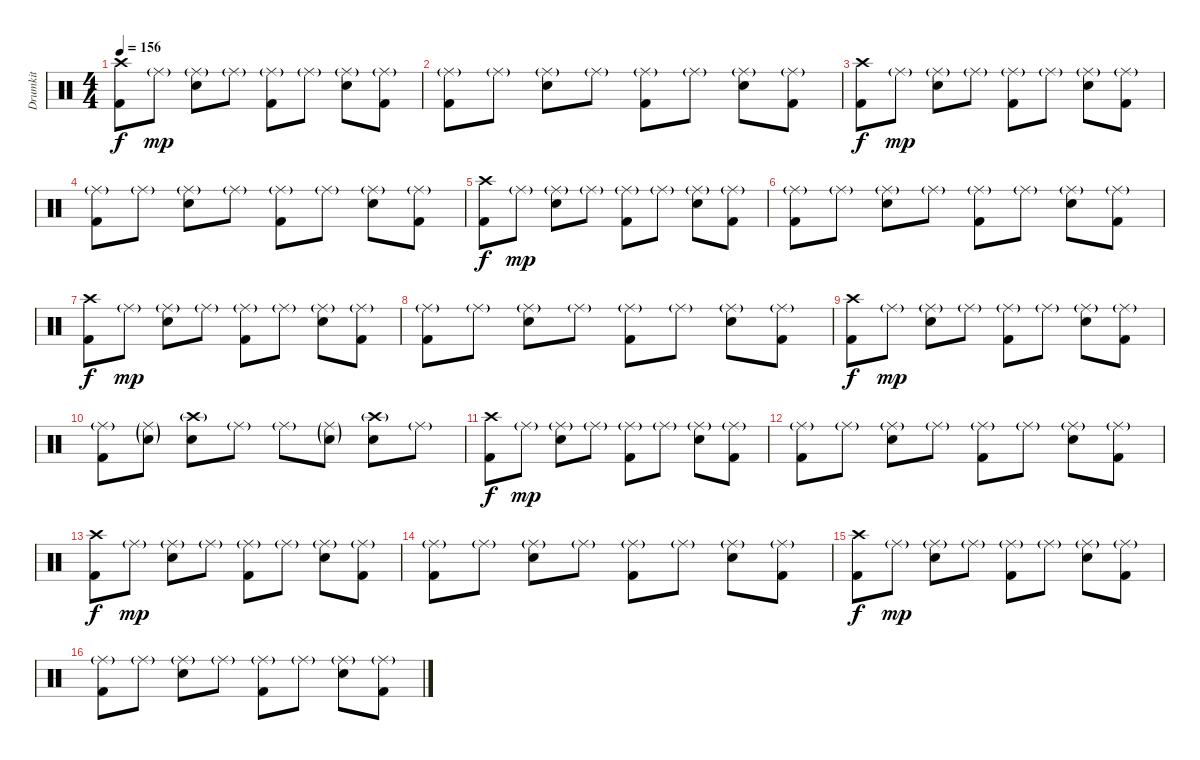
\track ("Drumkit" "Drumkit") {instrument percussion}
\staff {score}
\articulation defaults
\ts (4 4)
\tempo 156
\clef neutral
\ks c
("Crash high (hit)" "Kick (hit) 2").8{dy f} "Ride (middle)"{g}.8{dy mp} ("Ride (middle)"{g} "Electric Snare (hit)").8 "Ride (middle)"{g}.8 ("Ride (middle)"{g} "Kick (hit) 2").8 "Ride (middle)"{g}.8 ("Ride (middle)"{g} "Electric Snare (hit)").8 ("Ride (middle)"{g} "Kick (hit) 2").8 |
("Ride (middle)"{g} "Kick (hit) 2").8 "Ride (middle)"{g}.8 ("Ride (middle)"{g} "Electric Snare (hit)").8 "Ride (middle)"{g}.8 ("Ride (middle)"{g} "Kick (hit) 2").8 "Ride (middle)"{g}.8 ("Ride (middle)"{g} "Electric Snare (hit)").8 ("Ride (middle)"{g} "Kick (hit) 2").8 |
("Crash high (hit)" "Kick (hit) 2").8{dy f} "Ride (middle)"{g}.8{dy mp} ("Ride (middle)"{g} "Electric Snare (hit)").8 "Ride (middle)"{g}.8 ("Ride (middle)"{g} "Kick (hit) 2").8 "Ride (middle)"{g}.8 ("Ride (middle)"{g} "Electric Snare (hit)").8 ("Ride (middle)"{g} "Kick (hit) 2").8 |
("Ride (middle)"{g} "Kick (hit) 2").8 "Ride (middle)"{g}.8 ("Ride (middle)"{g} "Electric Snare (hit)").8 "Ride (middle)"{g}.8 ("Ride (middle)"{g} "Kick (hit) 2").8 "Ride (middle)"{g}.8 ("Ride (middle)"{g} "Electric Snare (hit)").8 ("Ride (middle)"{g} "Kick (hit) 2").8 |
("Crash high (hit)" "Kick (hit) 2").8{dy f} "Ride (middle)"{g}.8{dy mp} ("Ride (middle)"{g} "Electric Snare (hit)").8 "Ride (middle)"{g}.8 ("Ride (middle)"{g} "Kick (hit) 2").8 "Ride (middle)"{g}.8 ("Ride (middle)"{g} "Electric Snare (hit)").8 ("Ride (middle)"{g} "Kick (hit) 2").8 |
("Ride (middle)"{g} "Kick (hit) 2").8 "Ride (middle)"{g}.8 ("Ride (middle)"{g} "Electric Snare (hit)").8 "Ride (middle)"{g}.8 ("Ride (middle)"{g} "Kick (hit) 2").8 "Ride (middle)"{g}.8 ("Ride (middle)"{g} "Electric Snare (hit)").8 ("Ride (middle)"{g} "Kick (hit) 2").8 |
("Crash high (hit)" "Kick (hit) 2").8{dy f} "Ride (middle)"{g}.8{dy mp} ("Ride (middle)"{g} "Electric Snare (hit)").8 "Ride (middle)"{g}.8 ("Ride (middle)"{g} "Kick (hit) 2").8 "Ride (middle)"{g}.8 ("Ride (middle)"{g} "Electric Snare (hit)").8 ("Ride (middle)"{g} "Kick (hit) 2").8 |
("Ride (middle)"{g} "Kick (hit) 2").8 "Ride (middle)"{g}.8 ("Ride (middle)"{g} "Electric Snare (hit)").8 "Ride (middle)"{g}.8 ("Ride (middle)"{g} "Kick (hit) 2").8 "Ride (middle)"{g}.8 ("Ride (middle)"{g} "Electric Snare (hit)").8 ("Ride (middle)"{g} "Kick (hit) 2").8 |
("Crash high (hit)" "Kick (hit) 2").8{dy f} "Ride (middle)"{g}.8{dy mp} ("Ride (middle)"{g} "Electric Snare (hit)").8 "Ride (middle)"{g}.8 ("Ride (middle)"{g} "Kick (hit) 2").8 "Ride (middle)"{g}.8 ("Ride (middle)"{g} "Electric Snare (hit)").8 ("Ride (middle)"{g} "Kick (hit) 2").8 |
("Ride (middle)"{g} "Kick (hit) 2").8 ("Ride (middle)"{g} "Electric Snare (hit)"{g}).8 ("Crash high (hit)"{g} "Electric Snare (hit)").8 "Ride (middle)"{g}.8 "Ride (middle)"{g}.8 ("Ride (middle)"{g} "Electric Snare (hit)"{g}).8 ("Crash high (hit)"{g} "Electric Snare (hit)").8 "Ride (middle)"{g}.8 |
("Crash high (hit)" "Kick (hit) 2").8{dy f} "Ride (middle)"{g}.8{dy mp} ("Ride (middle)"{g} "Electric Snare (hit)").8 "Ride (middle)"{g}.8 ("Ride (middle)"{g} "Kick (hit) 2").8 "Ride (middle)"{g}.8 ("Ride (middle)"{g} "Electric Snare (hit)").8 ("Ride (middle)"{g} "Kick (hit) 2").8 |
("Ride (middle)"{g} "Kick (hit) 2").8 "Ride (middle)"{g}.8 ("Ride (middle)"{g} "Electric Snare (hit)").8 "Ride (middle)"{g}.8 ("Ride (middle)"{g} "Kick (hit) 2").8 "Ride (middle)"{g}.8 ("Ride (middle)"{g} "Electric Snare (hit)").8 ("Ride (middle)"{g} "Kick (hit) 2").8 |
("Crash high (hit)" "Kick (hit) 2").8{dy f} "Ride (middle)"{g}.8{dy mp} ("Ride (middle)"{g} "Electric Snare (hit)").8 "Ride (middle)"{g}.8 ("Ride (middle)"{g} "Kick (hit) 2").8 "Ride (middle)"{g}.8 ("Ride (middle)"{g} "Electric Snare (hit)").8 ("Ride (middle)"{g} "Kick (hit) 2").8 |
("Ride (middle)"{g} "Kick (hit) 2").8 "Ride (middle)"{g}.8 ("Ride (middle)"{g} "Electric Snare (hit)").8 "Ride (middle)"{g}.8 ("Ride (middle)"{g} "Kick (hit) 2").8 "Ride (middle)"{g}.8 ("Ride (middle)"{g} "Electric Snare (hit)").8 ("Ride (middle)"{g} "Kick (hit) 2").8 |
("Crash high (hit)" "Kick (hit) 2").8{dy f} "Ride (middle)"{g}.8{dy mp} ("Ride (middle)"{g} "Electric Snare (hit)").8 "Ride (middle)"{g}.8 ("Ride (middle)"{g} "Kick (hit) 2").8 "Ride (middle)"{g}.8 ("Ride (middle)"{g} "Electric Snare (hit)").8 ("Ride (middle)"{g} "Kick (hit) 2").8 |
("Ride (middle)"{g} "Kick (hit) 2").8 "Ride (middle)"{g}.8 ("Ride (middle)"{g} "Electric Snare (hit)").8 "Ride (middle)"{g}.8 ("Ride (middle)"{g} "Kick (hit) 2").8 "Ride (middle)"{g}.8 ("Ride (middle)"{g} "Electric Snare (hit)").8 ("Ride (middle)"{g} "Kick (hit) 2").8
